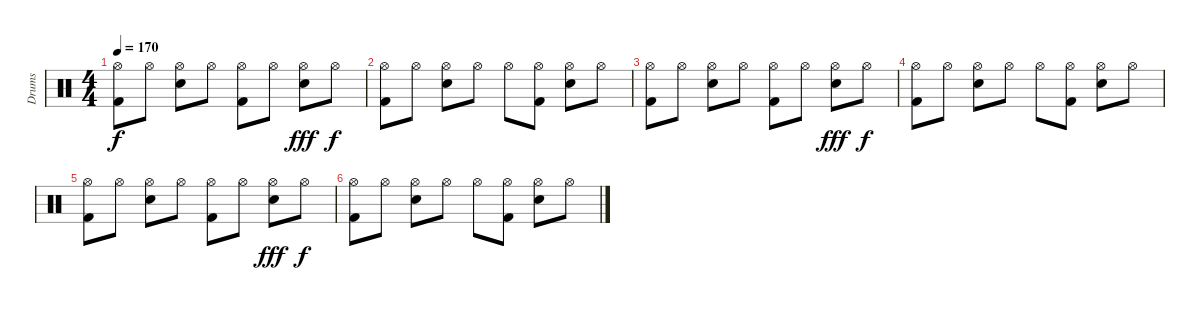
\track ("Drums" "Drums") {instrument percussion}
\staff {score}
\articulation defaults
\ts (4 4)
\tempo 170
\clef neutral
\ks c
("Hi-Hat (open)" "Kick (hit) 2").8{dy f} "Hi-Hat (open)".8 ("Hi-Hat (open)" "Electric Snare (hit)").8 "Hi-Hat (open)".8 ("Hi-Hat (open)" "Kick (hit) 2").8 "Hi-Hat (open)".8 ("Hi-Hat (open)" "Electric Snare (hit)").8{dy fff} "Hi-Hat (open)".8{dy f} |
("Hi-Hat (open)" "Kick (hit) 2").8 "Hi-Hat (open)".8 ("Hi-Hat (open)" "Electric Snare (hit)").8 "Hi-Hat (open)".8 "Hi-Hat (open)".8 ("Hi-Hat (open)" "Kick (hit) 2").8 ("Hi-Hat (open)" "Electric Snare (hit)").8 "Hi-Hat (open)".8{volume 4} |
("Hi-Hat (open)" "Kick (hit) 2").8 "Hi-Hat (open)".8 ("Hi-Hat (open)" "Electric Snare (hit)").8 "Hi-Hat (open)".8 ("Hi-Hat (open)" "Kick (hit) 2").8 "Hi-Hat (open)".8 ("Hi-Hat (open)" "Electric Snare (hit)").8{dy fff} "Hi-Hat (open)".8{dy f} |
("Hi-Hat (open)" "Kick (hit) 2").8 "Hi-Hat (open)".8 ("Hi-Hat (open)" "Electric Snare (hit)").8 "Hi-Hat (open)".8 "Hi-Hat (open)".8 ("Hi-Hat (open)" "Kick (hit) 2").8 ("Hi-Hat (open)" "Electric Snare (hit)").8 "Hi-Hat (open)".8{volume 4} |
("Hi-Hat (open)" "Kick (hit) 2").8 "Hi-Hat (open)".8 ("Hi-Hat (open)" "Electric Snare (hit)").8 "Hi-Hat (open)".8 ("Hi-Hat (open)" "Kick (hit) 2").8 "Hi-Hat (open)".8 ("Hi-Hat (open)" "Electric Snare (hit)").8{dy fff} "Hi-Hat (open)".8{dy f} |
("Hi-Hat (open)" "Kick (hit) 2").8{volume 3} "Hi-Hat (open)".8 ("Hi-Hat (open)" "Electric Snare (hit)").8 "Hi-Hat (open)".8 "Hi-Hat (open)".8{volume 2} ("Hi-Hat (open)" "Kick (hit) 2").8 ("Hi-Hat (open)" "Electric Snare (hit)").8{volume 1} "Hi-Hat (open)".8{volume 0}
